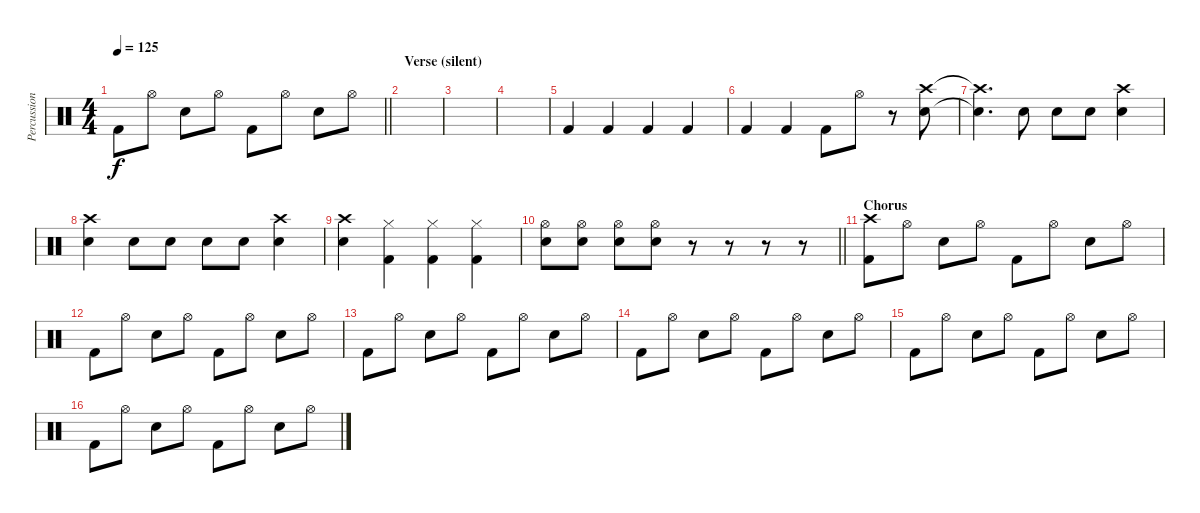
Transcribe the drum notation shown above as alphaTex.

\track ("Percussion" "Percussion") {instrument percussion}
\staff {score}
\articulation defaults
\ts (4 4)
\tempo 125
\clef neutral
\barLineRight lightlight
\ks c "Kick (hit) 2".8{dy f} "Hi-Hat (open)".8 "Snare (hit) 2".8 "Hi-Hat (open)".8 "Kick (hit) 2".8 "Hi-Hat (open)".8 "Snare (hit) 2".8 "Hi-Hat (open)".8
|
\section ("" "Verse (silent)")
|
|
|
"Kick (hit) 2".4 "Kick (hit) 2".4 "Kick (hit) 2".4 "Kick (hit) 2".4 |
"Kick (hit) 2".4 "Kick (hit) 2".4 "Kick (hit) 2".8 "Hi-Hat (open)".8 r.8 ("Crash high (hit)" "Snare (hit) 2").8 |
("Crash high (hit)"{t} "Snare (hit) 2"{t}).4{d} "Snare (hit) 2".8 "Snare (hit) 2".8 "Snare (hit) 2".8 ("Crash high (hit)" "Snare (hit) 2").4 |
("Crash high (hit)" "Snare (hit) 2").4 "Snare (hit) 2".8 "Snare (hit) 2".8 "Snare (hit) 2".8 "Snare (hit) 2".8 ("Crash high (hit)" "Snare (hit) 2").4 |
("Crash high (hit)" "Snare (hit) 2").4 ("Hi-Hat (closed)" "Kick (hit) 2").4 ("Hi-Hat (closed)" "Kick (hit) 2").4 ("Hi-Hat (closed)" "Kick (hit) 2").4 |
\barLineRight lightlight
("Hi-Hat (open)" "Snare (hit) 2").8 ("Hi-Hat (open)" "Snare (hit) 2").8 ("Hi-Hat (open)" "Snare (hit) 2").8 ("Hi-Hat (open)" "Snare (hit) 2").8 r.8 r.8 r.8 r.8 |
\section ("" "Chorus")
("Crash high (hit)" "Kick (hit) 2").8 "Hi-Hat (open)".8 "Snare (hit) 2".8 "Hi-Hat (open)".8 "Kick (hit) 2".8 "Hi-Hat (open)".8 "Snare (hit) 2".8 "Hi-Hat (open)".8 |
"Kick (hit) 2".8 "Hi-Hat (open)".8 "Snare (hit) 2".8 "Hi-Hat (open)".8 "Kick (hit) 2".8 "Hi-Hat (open)".8 "Snare (hit) 2".8 "Hi-Hat (open)".8 |
"Kick (hit) 2".8 "Hi-Hat (open)".8 "Snare (hit) 2".8 "Hi-Hat (open)".8 "Kick (hit) 2".8 "Hi-Hat (open)".8 "Snare (hit) 2".8 "Hi-Hat (open)".8 |
"Kick (hit) 2".8 "Hi-Hat (open)".8 "Snare (hit) 2".8 "Hi-Hat (open)".8 "Kick (hit) 2".8 "Hi-Hat (open)".8 "Snare (hit) 2".8 "Hi-Hat (open)".8 |
"Kick (hit) 2".8 "Hi-Hat (open)".8 "Snare (hit) 2".8 "Hi-Hat (open)".8 "Kick (hit) 2".8 "Hi-Hat (open)".8 "Snare (hit) 2".8 "Hi-Hat (open)".8 |
"Kick (hit) 2".8 "Hi-Hat (open)".8 "Snare (hit) 2".8 "Hi-Hat (open)".8 "Kick (hit) 2".8 "Hi-Hat (open)".8 "Snare (hit) 2".8 "Hi-Hat (open)".8
